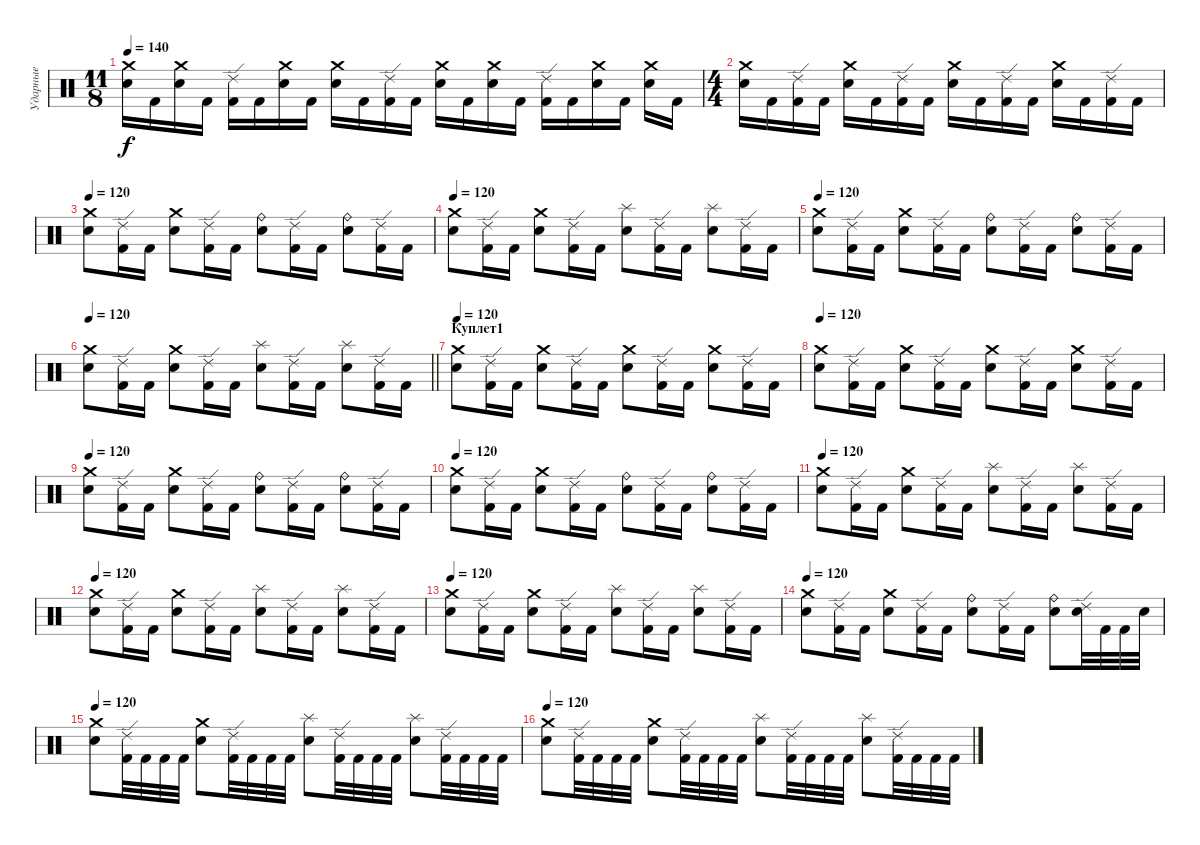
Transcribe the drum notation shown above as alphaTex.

\track ("Ударные" "Ударные") {instrument percussion}
\staff {score}
\articulation defaults
\ts (11 8)
\tempo 140
\clef neutral
\ks c
("Crash medium (hit)" "Electric Snare (hit)").16{dy f} "Kick (hit) 2".16 ("Crash medium (hit)" "Electric Snare (hit)").16 "Kick (hit) 2".16 ("Ride (edge) 2" "Kick (hit) 2").16 "Kick (hit) 2".16 ("Crash medium (hit)" "Electric Snare (hit)").16 "Kick (hit) 2".16 ("Crash medium (hit)" "Electric Snare (hit)").16 "Kick (hit) 2".16 ("Ride (edge) 2" "Kick (hit) 2").16 "Kick (hit) 2".16 ("Crash medium (hit)" "Electric Snare (hit)").16 "Kick (hit) 2".16 ("Crash medium (hit)" "Electric Snare (hit)").16 "Kick (hit) 2".16 ("Ride (edge) 2" "Kick (hit) 2").16 "Kick (hit) 2".16 ("Crash medium (hit)" "Electric Snare (hit)").16 "Kick (hit) 2".16 ("Crash medium (hit)" "Electric Snare (hit)").16 "Kick (hit) 2".16 |
\ts (4 4)
("Crash medium (hit)" "Electric Snare (hit)").16 "Kick (hit) 2".16 ("Kick (hit) 2" "Ride (edge) 2").16 "Kick (hit) 2".16 ("Crash medium (hit)" "Electric Snare (hit)").16 "Kick (hit) 2".16 ("Ride (edge) 2" "Kick (hit) 2").16 "Kick (hit) 2".16 ("Crash medium (hit)" "Electric Snare (hit)").16 "Kick (hit) 2".16 ("Kick (hit) 2" "Ride (edge) 2").16 "Kick (hit) 2".16 ("Crash medium (hit)" "Electric Snare (hit)").16 "Kick (hit) 2".16 ("Ride (edge) 2" "Kick (hit) 2").16 "Kick (hit) 2".16 |
\tempo 120
("Crash medium (hit)" "Electric Snare (hit)").8 ("Ride (edge) 2" "Kick (hit) 2").16 "Kick (hit) 2".16 ("Crash medium (hit)" "Electric Snare (hit)").8 ("Ride (edge) 2" "Kick (hit) 2").16 "Kick (hit) 2".16 ("Ride (bell)" "Electric Snare (hit)").8 ("Ride (edge) 2" "Kick (hit) 2").16 "Kick (hit) 2".16 ("Ride (bell)" "Electric Snare (hit)").8 ("Ride (edge) 2" "Kick (hit) 2").16 "Kick (hit) 2".16 |
\tempo 120
("Crash medium (hit)" "Electric Snare (hit)").8 ("Ride (edge) 2" "Kick (hit) 2").16 "Kick (hit) 2".16 ("Crash medium (hit)" "Electric Snare (hit)").8 ("Ride (edge) 2" "Kick (hit) 2").16 "Kick (hit) 2".16 ("Splash (hit)" "Electric Snare (hit)").8 ("Ride (edge) 2" "Kick (hit) 2").16 "Kick (hit) 2".16 ("Splash (hit)" "Electric Snare (hit)").8 ("Ride (edge) 2" "Kick (hit) 2").16 "Kick (hit) 2".16 |
\tempo 120
("Crash medium (hit)" "Electric Snare (hit)").8 ("Ride (edge) 2" "Kick (hit) 2").16 "Kick (hit) 2".16 ("Crash medium (hit)" "Electric Snare (hit)").8 ("Ride (edge) 2" "Kick (hit) 2").16 "Kick (hit) 2".16 ("Ride (bell)" "Electric Snare (hit)").8 ("Ride (edge) 2" "Kick (hit) 2").16 "Kick (hit) 2".16 ("Ride (bell)" "Electric Snare (hit)").8 ("Ride (edge) 2" "Kick (hit) 2").16 "Kick (hit) 2".16 |
\tempo 120
\barLineRight lightlight
("Crash medium (hit)" "Electric Snare (hit)").8 ("Ride (edge) 2" "Kick (hit) 2").16 "Kick (hit) 2".16 ("Crash medium (hit)" "Electric Snare (hit)").8 ("Ride (edge) 2" "Kick (hit) 2").16 "Kick (hit) 2".16 ("Splash (hit)" "Electric Snare (hit)").8 ("Ride (edge) 2" "Kick (hit) 2").16 "Kick (hit) 2".16 ("Splash (hit)" "Electric Snare (hit)").8 ("Kick (hit) 2" "Ride (edge) 2").16 "Kick (hit) 2".16 |
\section ("" "Куплет1")
\tempo 120
("Crash medium (hit)" "Electric Snare (hit)").8 ("Ride (edge) 2" "Kick (hit) 2").16 "Kick (hit) 2".16 ("Crash medium (hit)" "Electric Snare (hit)").8 ("Ride (edge) 2" "Kick (hit) 2").16 "Kick (hit) 2".16 ("Crash medium (hit)" "Electric Snare (hit)").8 ("Ride (edge) 2" "Kick (hit) 2").16 "Kick (hit) 2".16 ("Crash medium (hit)" "Electric Snare (hit)").8 ("Ride (edge) 2" "Kick (hit) 2").16 "Kick (hit) 2".16 |
\tempo 120
("Crash medium (hit)" "Electric Snare (hit)").8 ("Ride (edge) 2" "Kick (hit) 2").16 "Kick (hit) 2".16 ("Crash medium (hit)" "Electric Snare (hit)").8 ("Ride (edge) 2" "Kick (hit) 2").16 "Kick (hit) 2".16 ("Crash medium (hit)" "Electric Snare (hit)").8 ("Ride (edge) 2" "Kick (hit) 2").16 "Kick (hit) 2".16 ("Crash medium (hit)" "Electric Snare (hit)").8 ("Ride (edge) 2" "Kick (hit) 2").16 "Kick (hit) 2".16 |
\tempo 120
("Crash medium (hit)" "Electric Snare (hit)").8 ("Ride (edge) 2" "Kick (hit) 2").16 "Kick (hit) 2".16 ("Crash medium (hit)" "Electric Snare (hit)").8 ("Ride (edge) 2" "Kick (hit) 2").16 "Kick (hit) 2".16 ("Ride (bell)" "Electric Snare (hit)").8 ("Ride (edge) 2" "Kick (hit) 2").16 "Kick (hit) 2".16 ("Ride (bell)" "Electric Snare (hit)").8 ("Ride (edge) 2" "Kick (hit) 2").16 "Kick (hit) 2".16 |
\tempo 120
("Crash medium (hit)" "Electric Snare (hit)").8 ("Ride (edge) 2" "Kick (hit) 2").16 "Kick (hit) 2".16 ("Crash medium (hit)" "Electric Snare (hit)").8 ("Ride (edge) 2" "Kick (hit) 2").16 "Kick (hit) 2".16 ("Ride (bell)" "Electric Snare (hit)").8 ("Ride (edge) 2" "Kick (hit) 2").16 "Kick (hit) 2".16 ("Ride (bell)" "Electric Snare (hit)").8 ("Kick (hit) 2" "Ride (edge) 2").16 "Kick (hit) 2".16 |
\tempo 120
("Crash medium (hit)" "Electric Snare (hit)").8 ("Ride (edge) 2" "Kick (hit) 2").16 "Kick (hit) 2".16 ("Crash medium (hit)" "Electric Snare (hit)").8 ("Ride (edge) 2" "Kick (hit) 2").16 "Kick (hit) 2".16 ("Splash (hit)" "Electric Snare (hit)").8 ("Ride (edge) 2" "Kick (hit) 2").16 "Kick (hit) 2".16 ("Splash (hit)" "Electric Snare (hit)").8 ("Ride (edge) 2" "Kick (hit) 2").16 "Kick (hit) 2".16 |
\tempo 120
("Crash medium (hit)" "Electric Snare (hit)").8 ("Ride (edge) 2" "Kick (hit) 2").16 "Kick (hit) 2".16 ("Crash medium (hit)" "Electric Snare (hit)").8 ("Ride (edge) 2" "Kick (hit) 2").16 "Kick (hit) 2".16 ("Splash (hit)" "Electric Snare (hit)").8 ("Ride (edge) 2" "Kick (hit) 2").16 "Kick (hit) 2".16 ("Splash (hit)" "Electric Snare (hit)").8 ("Kick (hit) 2" "Ride (edge) 2").16 "Kick (hit) 2".16 |
\tempo 120
("Crash medium (hit)" "Electric Snare (hit)").8 ("Ride (edge) 2" "Kick (hit) 2").16 "Kick (hit) 2".16 ("Crash medium (hit)" "Electric Snare (hit)").8 ("Ride (edge) 2" "Kick (hit) 2").16 "Kick (hit) 2".16 ("Splash (hit)" "Electric Snare (hit)").8 ("Ride (edge) 2" "Kick (hit) 2").16 "Kick (hit) 2".16 ("Splash (hit)" "Electric Snare (hit)").8 ("Ride (edge) 2" "Kick (hit) 2").16 "Kick (hit) 2".16 |
\tempo 120
("Crash medium (hit)" "Electric Snare (hit)").8 ("Ride (edge) 2" "Kick (hit) 2").16 "Kick (hit) 2".16 ("Crash medium (hit)" "Electric Snare (hit)").8 ("Ride (edge) 2" "Kick (hit) 2").16 "Kick (hit) 2".16 ("Ride (bell)" "Electric Snare (hit)").8 ("Ride (edge) 2" "Kick (hit) 2").16 "Kick (hit) 2".16 ("Ride (bell)" "Electric Snare (hit)").8 ("Electric Snare (hit)" "Ride (edge) 2").32 "Kick (hit) 2".32 "Kick (hit) 2".32 "Electric Snare (hit)".32 |
\tempo 120
("Crash medium (hit)" "Electric Snare (hit)").8 ("Ride (edge) 2" "Kick (hit) 2").32 "Kick (hit) 2".32 "Kick (hit) 2".32 "Kick (hit) 2".32 ("Crash medium (hit)" "Electric Snare (hit)").8 ("Ride (edge) 2" "Kick (hit) 2").32 "Kick (hit) 2".32 "Kick (hit) 2".32 "Kick (hit) 2".32 ("Splash (hit)" "Electric Snare (hit)").8 ("Ride (edge) 2" "Kick (hit) 2").32 "Kick (hit) 2".32 "Kick (hit) 2".32 "Kick (hit) 2".32 ("Splash (hit)" "Electric Snare (hit)").8 ("Ride (edge) 2" "Kick (hit) 2").32 "Kick (hit) 2".32 "Kick (hit) 2".32 "Kick (hit) 2".32 |
\tempo 120
("Crash medium (hit)" "Electric Snare (hit)").8 ("Ride (edge) 2" "Kick (hit) 2").32 "Kick (hit) 2".32 "Kick (hit) 2".32 "Kick (hit) 2".32 ("Crash medium (hit)" "Electric Snare (hit)").8 ("Ride (edge) 2" "Kick (hit) 2").32 "Kick (hit) 2".32 "Kick (hit) 2".32 "Kick (hit) 2".32 ("Splash (hit)" "Electric Snare (hit)").8 ("Ride (edge) 2" "Kick (hit) 2").32 "Kick (hit) 2".32 "Kick (hit) 2".32 "Kick (hit) 2".32 ("Splash (hit)" "Electric Snare (hit)").8 ("Ride (edge) 2" "Kick (hit) 2").32 "Kick (hit) 2".32 "Kick (hit) 2".32 "Kick (hit) 2".32
